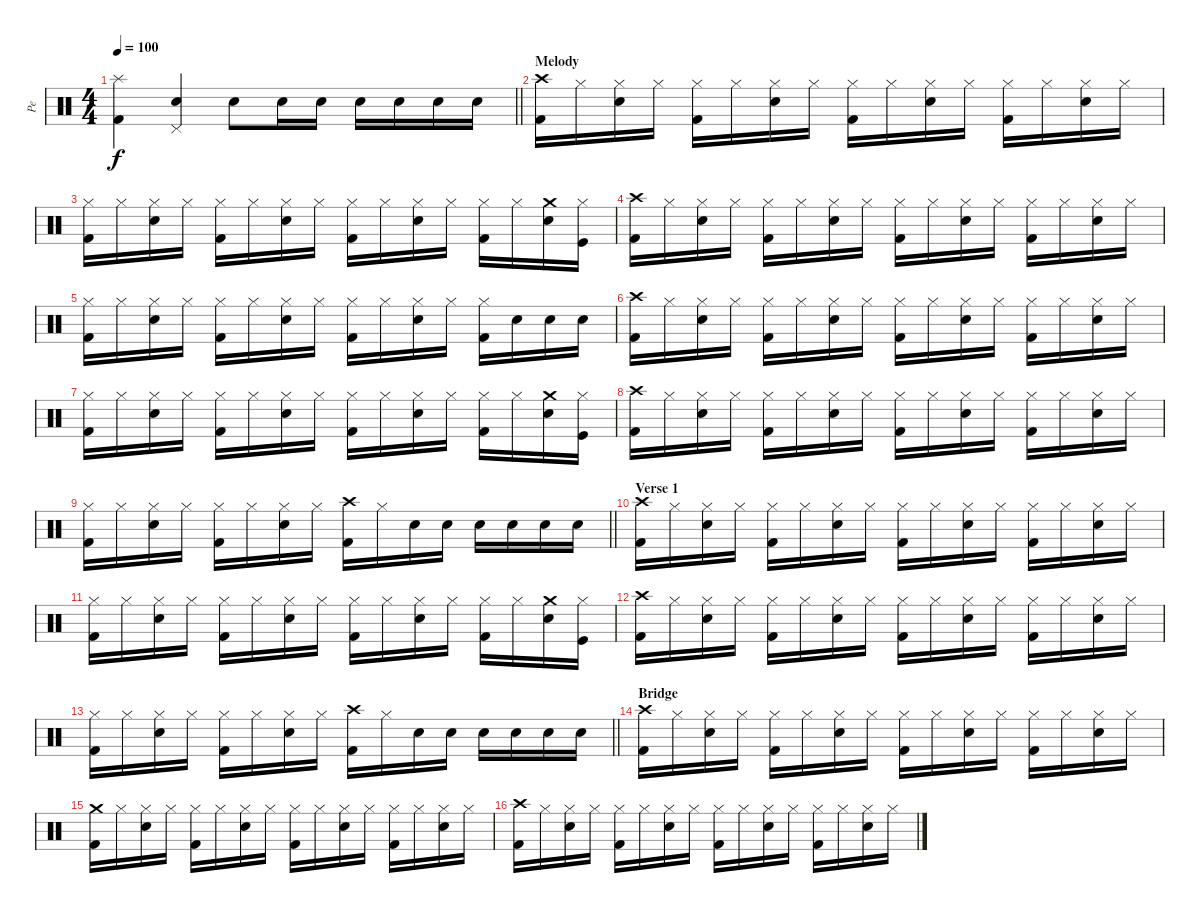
\track ("Pe" "Pe") {instrument percussion}
\staff {score}
\articulation defaults
\ts (4 4)
\tempo 100
\clef neutral
\barLineRight lightlight
\ks c
("Kick (hit) 2" "Splash (hit)").4{dy f} ("Electric Snare (hit)" "Pedal Hi-Hat (hit)").4 "Electric Snare (hit)".8 "Electric Snare (hit)".16 "Electric Snare (hit)".16 "Electric Snare (hit)".16 "Electric Snare (hit)".16 "Electric Snare (hit)".16 "Electric Snare (hit)".16 |
\section ("" "Melody")
("Kick (hit) 2" "Crash high (hit)").16 "Hi-Hat (closed)".16 ("Electric Snare (hit)" "Hi-Hat (closed)").16 "Hi-Hat (closed)".16 ("Kick (hit) 2" "Hi-Hat (closed)").16 "Hi-Hat (closed)".16 ("Electric Snare (hit)" "Hi-Hat (closed)").16 "Hi-Hat (closed)".16 ("Kick (hit) 2" "Hi-Hat (closed)").16 "Hi-Hat (closed)".16 ("Electric Snare (hit)" "Hi-Hat (closed)").16 "Hi-Hat (closed)".16 ("Kick (hit) 2" "Hi-Hat (closed)").16 "Hi-Hat (closed)".16 ("Electric Snare (hit)" "Hi-Hat (closed)").16 "Hi-Hat (closed)".16 |
("Kick (hit) 2" "Hi-Hat (closed)").16 "Hi-Hat (closed)".16 ("Electric Snare (hit)" "Hi-Hat (closed)").16 "Hi-Hat (closed)".16 ("Kick (hit) 2" "Hi-Hat (closed)").16 "Hi-Hat (closed)".16 ("Electric Snare (hit)" "Hi-Hat (closed)").16 "Hi-Hat (closed)".16 ("Kick (hit) 2" "Hi-Hat (closed)").16 "Hi-Hat (closed)".16 ("Electric Snare (hit)" "Hi-Hat (closed)").16 "Hi-Hat (closed)".16 ("Kick (hit) 2" "Hi-Hat (closed)").16 "Hi-Hat (closed)".16 ("Electric Snare (hit)" "Crash medium (hit)").16 ("Kick (hit)" "Hi-Hat (closed)").16 |
("Kick (hit) 2" "Crash high (hit)").16 "Hi-Hat (closed)".16 ("Electric Snare (hit)" "Hi-Hat (closed)").16 "Hi-Hat (closed)".16 ("Kick (hit) 2" "Hi-Hat (closed)").16 "Hi-Hat (closed)".16 ("Electric Snare (hit)" "Hi-Hat (closed)").16 "Hi-Hat (closed)".16 ("Kick (hit) 2" "Hi-Hat (closed)").16 "Hi-Hat (closed)".16 ("Electric Snare (hit)" "Hi-Hat (closed)").16 "Hi-Hat (closed)".16 ("Kick (hit) 2" "Hi-Hat (closed)").16 "Hi-Hat (closed)".16 ("Electric Snare (hit)" "Hi-Hat (closed)").16 "Hi-Hat (closed)".16 |
("Kick (hit) 2" "Hi-Hat (closed)").16 "Hi-Hat (closed)".16 ("Electric Snare (hit)" "Hi-Hat (closed)").16 "Hi-Hat (closed)".16 ("Kick (hit) 2" "Hi-Hat (closed)").16 "Hi-Hat (closed)".16 ("Electric Snare (hit)" "Hi-Hat (closed)").16 "Hi-Hat (closed)".16 ("Kick (hit) 2" "Hi-Hat (closed)").16 "Hi-Hat (closed)".16 ("Electric Snare (hit)" "Hi-Hat (closed)").16 "Hi-Hat (closed)".16 ("Kick (hit) 2" "Hi-Hat (closed)").16 "Electric Snare (hit)".16 "Electric Snare (hit)".16 "Electric Snare (hit)".16 |
("Kick (hit) 2" "Crash high (hit)").16 "Hi-Hat (closed)".16 ("Electric Snare (hit)" "Hi-Hat (closed)").16 "Hi-Hat (closed)".16 ("Kick (hit) 2" "Hi-Hat (closed)").16 "Hi-Hat (closed)".16 ("Electric Snare (hit)" "Hi-Hat (closed)").16 "Hi-Hat (closed)".16 ("Kick (hit) 2" "Hi-Hat (closed)").16 "Hi-Hat (closed)".16 ("Electric Snare (hit)" "Hi-Hat (closed)").16 "Hi-Hat (closed)".16 ("Kick (hit) 2" "Hi-Hat (closed)").16 "Hi-Hat (closed)".16 ("Electric Snare (hit)" "Hi-Hat (closed)").16 "Hi-Hat (closed)".16 |
("Kick (hit) 2" "Hi-Hat (closed)").16 "Hi-Hat (closed)".16 ("Electric Snare (hit)" "Hi-Hat (closed)").16 "Hi-Hat (closed)".16 ("Kick (hit) 2" "Hi-Hat (closed)").16 "Hi-Hat (closed)".16 ("Electric Snare (hit)" "Hi-Hat (closed)").16 "Hi-Hat (closed)".16 ("Kick (hit) 2" "Hi-Hat (closed)").16 "Hi-Hat (closed)".16 ("Electric Snare (hit)" "Hi-Hat (closed)").16 "Hi-Hat (closed)".16 ("Kick (hit) 2" "Hi-Hat (closed)").16 "Hi-Hat (closed)".16 ("Electric Snare (hit)" "Crash medium (hit)").16 ("Kick (hit)" "Hi-Hat (closed)").16 |
("Kick (hit) 2" "Crash high (hit)").16 "Hi-Hat (closed)".16 ("Electric Snare (hit)" "Hi-Hat (closed)").16 "Hi-Hat (closed)".16 ("Kick (hit) 2" "Hi-Hat (closed)").16 "Hi-Hat (closed)".16 ("Electric Snare (hit)" "Hi-Hat (closed)").16 "Hi-Hat (closed)".16 ("Kick (hit) 2" "Hi-Hat (closed)").16 "Hi-Hat (closed)".16 ("Electric Snare (hit)" "Hi-Hat (closed)").16 "Hi-Hat (closed)".16 ("Kick (hit) 2" "Hi-Hat (closed)").16 "Hi-Hat (closed)".16 ("Electric Snare (hit)" "Hi-Hat (closed)").16 "Hi-Hat (closed)".16 |
\barLineRight lightlight
("Kick (hit) 2" "Hi-Hat (closed)").16 "Hi-Hat (closed)".16 ("Electric Snare (hit)" "Hi-Hat (closed)").16 "Hi-Hat (closed)".16 ("Kick (hit) 2" "Hi-Hat (closed)").16 "Hi-Hat (closed)".16 ("Electric Snare (hit)" "Hi-Hat (closed)").16 "Hi-Hat (closed)".16 ("Kick (hit) 2" "Crash high (hit)").16 "Hi-Hat (closed)".16 "Electric Snare (hit)".16 "Electric Snare (hit)".16 "Electric Snare (hit)".16 "Electric Snare (hit)".16 "Electric Snare (hit)".16 "Electric Snare (hit)".16 |
\section ("" "Verse 1")
("Kick (hit) 2" "Crash high (hit)").16 "Hi-Hat (closed)".16 ("Electric Snare (hit)" "Hi-Hat (closed)").16 "Hi-Hat (closed)".16 ("Kick (hit) 2" "Hi-Hat (closed)").16 "Hi-Hat (closed)".16 ("Electric Snare (hit)" "Hi-Hat (closed)").16 "Hi-Hat (closed)".16 ("Kick (hit) 2" "Hi-Hat (closed)").16 "Hi-Hat (closed)".16 ("Electric Snare (hit)" "Hi-Hat (closed)").16 "Hi-Hat (closed)".16 ("Kick (hit) 2" "Hi-Hat (closed)").16 "Hi-Hat (closed)".16 ("Electric Snare (hit)" "Hi-Hat (closed)").16 "Hi-Hat (closed)".16 |
("Kick (hit) 2" "Hi-Hat (closed)").16 "Hi-Hat (closed)".16 ("Electric Snare (hit)" "Hi-Hat (closed)").16 "Hi-Hat (closed)".16 ("Kick (hit) 2" "Hi-Hat (closed)").16 "Hi-Hat (closed)".16 ("Electric Snare (hit)" "Hi-Hat (closed)").16 "Hi-Hat (closed)".16 ("Kick (hit) 2" "Hi-Hat (closed)").16 "Hi-Hat (closed)".16 ("Electric Snare (hit)" "Hi-Hat (closed)").16 "Hi-Hat (closed)".16 ("Kick (hit) 2" "Hi-Hat (closed)").16 "Hi-Hat (closed)".16 ("Electric Snare (hit)" "Crash medium (hit)").16 ("Kick (hit)" "Hi-Hat (closed)").16 |
("Kick (hit) 2" "Crash high (hit)").16 "Hi-Hat (closed)".16 ("Electric Snare (hit)" "Hi-Hat (closed)").16 "Hi-Hat (closed)".16 ("Kick (hit) 2" "Hi-Hat (closed)").16 "Hi-Hat (closed)".16 ("Electric Snare (hit)" "Hi-Hat (closed)").16 "Hi-Hat (closed)".16 ("Kick (hit) 2" "Hi-Hat (closed)").16 "Hi-Hat (closed)".16 ("Electric Snare (hit)" "Hi-Hat (closed)").16 "Hi-Hat (closed)".16 ("Kick (hit) 2" "Hi-Hat (closed)").16 "Hi-Hat (closed)".16 ("Electric Snare (hit)" "Hi-Hat (closed)").16 "Hi-Hat (closed)".16 |
\barLineRight lightlight
("Kick (hit) 2" "Hi-Hat (closed)").16 "Hi-Hat (closed)".16 ("Electric Snare (hit)" "Hi-Hat (closed)").16 "Hi-Hat (closed)".16 ("Kick (hit) 2" "Hi-Hat (closed)").16 "Hi-Hat (closed)".16 ("Electric Snare (hit)" "Hi-Hat (closed)").16 "Hi-Hat (closed)".16 ("Kick (hit) 2" "Crash high (hit)").16 "Hi-Hat (closed)".16 "Electric Snare (hit)".16 "Electric Snare (hit)".16 "Electric Snare (hit)".16 "Electric Snare (hit)".16 "Electric Snare (hit)".16 "Electric Snare (hit)".16 |
\section ("" "Bridge")
("Kick (hit) 2" "Crash high (hit)").16 "Hi-Hat (closed)".16 ("Electric Snare (hit)" "Hi-Hat (closed)").16 "Hi-Hat (closed)".16 ("Kick (hit) 2" "Hi-Hat (closed)").16 "Hi-Hat (closed)".16 ("Electric Snare (hit)" "Hi-Hat (closed)").16 "Hi-Hat (closed)".16 ("Kick (hit) 2" "Hi-Hat (closed)").16 "Hi-Hat (closed)".16 ("Electric Snare (hit)" "Hi-Hat (closed)").16 "Hi-Hat (closed)".16 ("Kick (hit) 2" "Hi-Hat (closed)").16 "Hi-Hat (closed)".16 ("Electric Snare (hit)" "Hi-Hat (closed)").16 "Hi-Hat (closed)".16 |
("Kick (hit) 2" "Crash medium (hit)").16 "Hi-Hat (closed)".16 ("Electric Snare (hit)" "Hi-Hat (closed)").16 "Hi-Hat (closed)".16 ("Kick (hit) 2" "Hi-Hat (closed)").16 "Hi-Hat (closed)".16 ("Electric Snare (hit)" "Hi-Hat (closed)").16 "Hi-Hat (closed)".16 ("Kick (hit) 2" "Hi-Hat (closed)").16 "Hi-Hat (closed)".16 ("Electric Snare (hit)" "Hi-Hat (closed)").16 "Hi-Hat (closed)".16 ("Kick (hit) 2" "Hi-Hat (closed)").16 "Hi-Hat (closed)".16 ("Electric Snare (hit)" "Hi-Hat (closed)").16 "Hi-Hat (closed)".16 |
("Kick (hit) 2" "Crash high (hit)").16 "Hi-Hat (closed)".16 ("Electric Snare (hit)" "Hi-Hat (closed)").16 "Hi-Hat (closed)".16 ("Kick (hit) 2" "Hi-Hat (closed)").16 "Hi-Hat (closed)".16 ("Electric Snare (hit)" "Hi-Hat (closed)").16 "Hi-Hat (closed)".16 ("Kick (hit) 2" "Hi-Hat (closed)").16 "Hi-Hat (closed)".16 ("Electric Snare (hit)" "Hi-Hat (closed)").16 "Hi-Hat (closed)".16 ("Kick (hit) 2" "Hi-Hat (closed)").16 "Hi-Hat (closed)".16 ("Electric Snare (hit)" "Hi-Hat (closed)").16 "Hi-Hat (closed)".16
